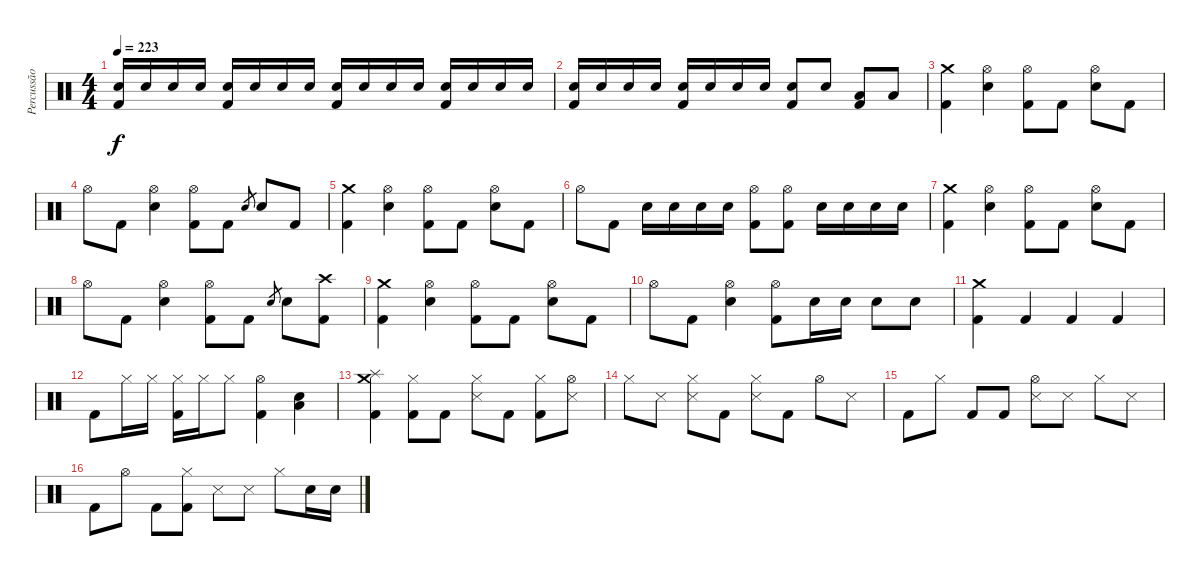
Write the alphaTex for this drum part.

\track ("Percussão" "Percussão") {instrument percussion}
\staff {score}
\articulation defaults
\ts (4 4)
\tempo 223
\clef neutral
\ks c
("Snare (hit) 2" "Kick (hit) 2").16{dy f} "Snare (hit) 2".16 "Snare (hit) 2".16 "Snare (hit) 2".16 ("Snare (hit) 2" "Kick (hit) 2").16 "Snare (hit) 2".16 "Snare (hit) 2".16 "Snare (hit) 2".16 ("Snare (hit) 2" "Kick (hit) 2").16 "Snare (hit) 2".16 "Snare (hit) 2".16 "Snare (hit) 2".16 ("Snare (hit) 2" "Kick (hit) 2").16 "Snare (hit) 2".16 "Snare (hit) 2".16 "Snare (hit) 2".16 |
("Snare (hit) 2" "Kick (hit) 2").16 "Snare (hit) 2".16 "Snare (hit) 2".16 "Snare (hit) 2".16 ("Snare (hit) 2" "Kick (hit) 2").16 "Snare (hit) 2".16 "Snare (hit) 2".16 "Snare (hit) 2".16 ("Snare (hit) 2" "Kick (hit) 2").8 "Snare (hit) 2".8 ("Low Tom (hit)" "Kick (hit) 2").8 "Low Tom (hit)".8 |
("Crash medium (hit)" "Kick (hit) 2").4 ("Hi-Hat (open)" "Snare (hit) 2").4 ("Hi-Hat (open)" "Kick (hit) 2").8 "Kick (hit) 2".8 ("Hi-Hat (open)" "Snare (hit) 2").8 "Kick (hit) 2".8 |
"Hi-Hat (open)".8 "Kick (hit) 2".8 ("Hi-Hat (open)" "Snare (hit) 2").4 ("Hi-Hat (open)" "Kick (hit) 2").8 "Kick (hit) 2".8 "Snare (hit) 2".8{gr} "Snare (hit) 2".8 "Kick (hit) 2".8 |
("Crash medium (hit)" "Kick (hit) 2").4 ("Hi-Hat (open)" "Snare (hit) 2").4 ("Hi-Hat (open)" "Kick (hit) 2").8 "Kick (hit) 2".8 ("Hi-Hat (open)" "Snare (hit) 2").8 "Kick (hit) 2".8 |
"Hi-Hat (open)".8 "Kick (hit) 2".8 "Snare (hit) 2".16 "Snare (hit) 2".16 "Snare (hit) 2".16 "Snare (hit) 2".16 ("Hi-Hat (open)" "Kick (hit) 2").8 ("Hi-Hat (open)" "Kick (hit) 2").8 "Snare (hit) 2".16 "Snare (hit) 2".16 "Snare (hit) 2".16 "Snare (hit) 2".16 |
("Crash medium (hit)" "Kick (hit) 2").4 ("Hi-Hat (open)" "Snare (hit) 2").4 ("Hi-Hat (open)" "Kick (hit) 2").8 "Kick (hit) 2".8 ("Hi-Hat (open)" "Snare (hit) 2").8 "Kick (hit) 2".8 |
"Hi-Hat (open)".8 "Kick (hit) 2".8 ("Hi-Hat (open)" "Snare (hit) 2").4 ("Hi-Hat (open)" "Kick (hit) 2").8 "Kick (hit) 2".8 "Snare (hit) 2".8{gr} "Snare (hit) 2".8 ("Crash high (hit)" "Kick (hit) 2").8 |
("Crash medium (hit)" "Kick (hit) 2").4 ("Hi-Hat (open)" "Snare (hit) 2").4 ("Hi-Hat (open)" "Kick (hit) 2").8 "Kick (hit) 2".8 ("Hi-Hat (open)" "Snare (hit) 2").8 "Kick (hit) 2".8 |
"Hi-Hat (open)".8 "Kick (hit) 2".8 ("Hi-Hat (open)" "Snare (hit) 2").4 ("Hi-Hat (open)" "Kick (hit) 2").8 "Snare (hit) 2".16 "Snare (hit) 2".16 "Snare (hit) 2".8 "Snare (hit) 2".8 |
("Crash medium (hit)" "Kick (hit) 2").4 "Kick (hit) 2".4 "Kick (hit) 2".4 "Kick (hit) 2".4 |
"Kick (hit) 2".8 "Hi-Hat (closed)".16 "Hi-Hat (closed)".16 ("Hi-Hat (closed)" "Kick (hit) 2").16 "Hi-Hat (closed)".16 "Hi-Hat (closed)".8 ("Hi-Hat (open)" "Kick (hit) 2").4 ("Low Tom (hit)" "Snare (hit) 2").4 |
("Crash medium (hit)" "Kick (hit) 2" "Splash (hit)").4 ("Hi-Hat (closed)" "Kick (hit) 2").8 "Kick (hit) 2".8 ("Hi-Hat (closed)" "Snare (side stick) 3").8 "Kick (hit) 2".8 ("Hi-Hat (closed)" "Kick (hit) 2").8 ("Hi-Hat (open)" "Snare (side stick) 3").8 |
"Hi-Hat (closed)".8 "Snare (side stick) 3".8 ("Hi-Hat (closed)" "Snare (side stick) 3").8 "Kick (hit) 2".8 ("Hi-Hat (closed)" "Snare (side stick) 3").8 "Kick (hit) 2".8 "Hi-Hat (open)".8 "Snare (side stick) 3".8 |
"Kick (hit) 2".8 "Hi-Hat (closed)".8 "Kick (hit) 2".8 "Kick (hit) 2".8 ("Hi-Hat (open)" "Snare (side stick) 3").8 "Snare (side stick) 3".8 "Hi-Hat (closed)".8 "Snare (side stick) 3".8 |
"Kick (hit) 2".8 "Hi-Hat (open)".8 "Kick (hit) 2".8 ("Hi-Hat (closed)" "Kick (hit) 2").8 "Snare (side stick) 3".8 "Snare (side stick) 3".8 "Hi-Hat (closed)".8 "Snare (hit) 2".16 "Snare (hit) 2".16
